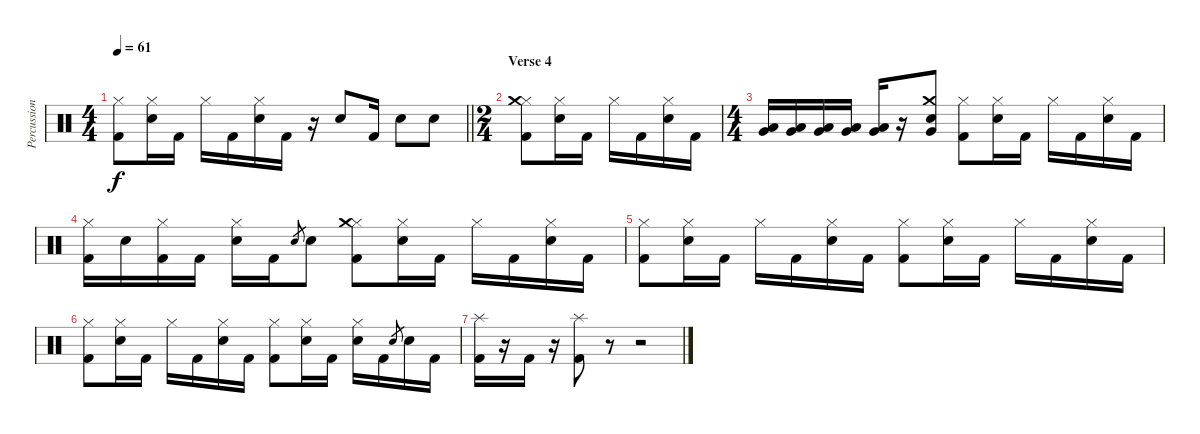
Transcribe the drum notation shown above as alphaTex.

\track ("Percussion 1" "Percussion") {instrument percussion}
\staff {score}
\articulation defaults
\ts (4 4)
\tempo 61
\clef neutral
\barLineRight lightlight
\ks c
("Hi-Hat (closed)" "Kick (hit) 2").8{dy f} ("Hi-Hat (closed)" "Snare (hit) 2").16 "Kick (hit) 2".16 "Hi-Hat (closed)".16 "Kick (hit) 2".16 ("Hi-Hat (closed)" "Snare (hit) 2").16 "Kick (hit) 2".16 r.16 "Snare (hit) 2".8 "Kick (hit) 2".16 "Snare (hit) 2".8 "Snare (hit) 2".8 |
\ts (2 4)
\section ("" "Verse 4")
("Hi-Hat (closed)" "Crash medium (hit)" "Kick (hit) 2").8 ("Hi-Hat (closed)" "Snare (hit) 2").16 "Kick (hit) 2".16 "Hi-Hat (closed)".16 "Kick (hit) 2".16 ("Hi-Hat (closed)" "Snare (hit) 2").16 "Kick (hit) 2".16 |
\ts (4 4)
("Very Low Tom (hit)" "Low Floor Tom (hit)").16 ("Very Low Tom (hit)" "Low Floor Tom (hit)").16 ("Very Low Tom (hit)" "Low Floor Tom (hit)").16 ("Very Low Tom (hit)" "Low Floor Tom (hit)").16 ("Very Low Tom (hit)" "Low Floor Tom (hit)").16 r.16 ("Crash medium (hit)" "Very Low Tom (hit)" "Snare (hit) 2").8 ("Hi-Hat (closed)" "Kick (hit) 2").8 ("Hi-Hat (closed)" "Snare (hit) 2").16 "Kick (hit) 2".16 "Hi-Hat (closed)".16 "Kick (hit) 2".16 ("Hi-Hat (closed)" "Snare (hit) 2").16 "Kick (hit) 2".16 |
("Hi-Hat (closed)" "Kick (hit) 2").16 "Snare (hit) 2".16 ("Hi-Hat (closed)" "Kick (hit) 2").16 "Kick (hit) 2".16 ("Hi-Hat (closed)" "Snare (hit) 2").16 "Kick (hit) 2".16 "Snare (hit) 2".8{gr} "Snare (hit) 2".8 ("Hi-Hat (closed)" "Crash medium (hit)" "Kick (hit) 2").8 ("Hi-Hat (closed)" "Snare (hit) 2").16 "Kick (hit) 2".16 "Hi-Hat (closed)".16 "Kick (hit) 2".16 ("Hi-Hat (closed)" "Snare (hit) 2").16 "Kick (hit) 2".16 |
("Hi-Hat (closed)" "Kick (hit) 2").8 ("Hi-Hat (closed)" "Snare (hit) 2").16 "Kick (hit) 2".16 "Hi-Hat (closed)".16 "Kick (hit) 2".16 ("Hi-Hat (closed)" "Snare (hit) 2").16 "Kick (hit) 2".16 ("Hi-Hat (closed)" "Kick (hit) 2").8 ("Hi-Hat (closed)" "Snare (hit) 2").16 "Kick (hit) 2".16 "Hi-Hat (closed)".16 "Kick (hit) 2".16 ("Hi-Hat (closed)" "Snare (hit) 2").16 "Kick (hit) 2".16 |
("Hi-Hat (closed)" "Kick (hit) 2").8 ("Hi-Hat (closed)" "Snare (hit) 2").16 "Kick (hit) 2".16 "Hi-Hat (closed)".16 "Kick (hit) 2".16 ("Hi-Hat (closed)" "Snare (hit) 2").16 "Kick (hit) 2".16 ("Hi-Hat (closed)" "Kick (hit) 2").8 ("Hi-Hat (closed)" "Snare (hit) 2").16 "Kick (hit) 2".16 ("Hi-Hat (closed)" "Snare (hit) 2").16 "Kick (hit) 2".16 "Snare (hit) 2".8{gr} "Snare (hit) 2".16 "Kick (hit) 2".16 |
("Splash (hit)" "Kick (hit) 2").16 r.16 "Kick (hit) 2".16 r.16 ("Splash (hit)" "Kick (hit) 2").8 r.8 r.2
